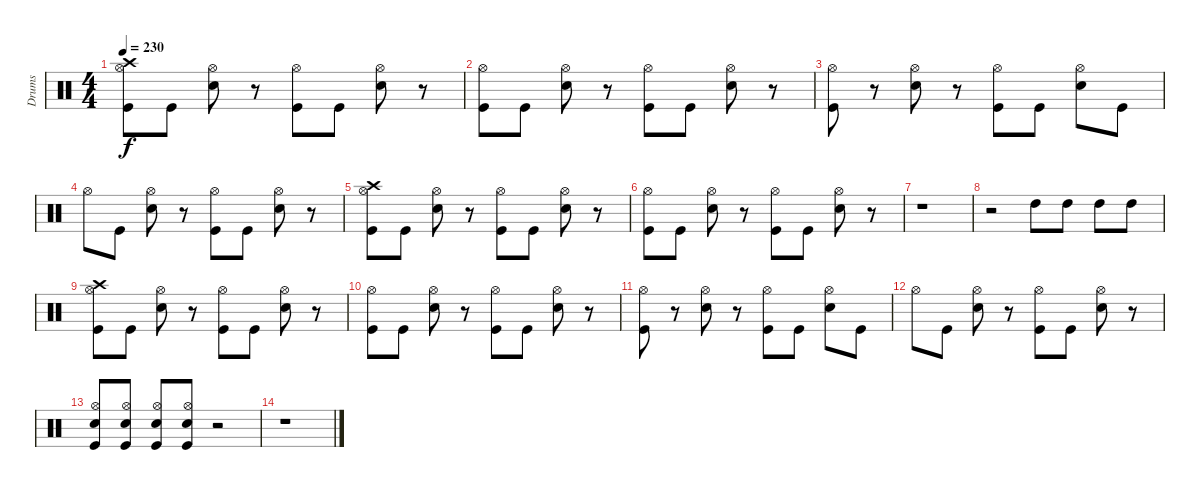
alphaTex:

\track ("Drums" "Drums") {instrument percussion}
\staff {score}
\articulation defaults
\ts (4 4)
\tempo 230
\clef neutral
\ks c
("Crash high (hit)" "Kick (hit)" "Hi-Hat (open)").8{dy f} "Kick (hit)".8 ("Electric Snare (hit)" "Hi-Hat (open)").8 r.8 ("Kick (hit)" "Hi-Hat (open)").8 "Kick (hit)".8 ("Electric Snare (hit)" "Hi-Hat (open)").8 r.8 |
("Kick (hit)" "Hi-Hat (open)").8 "Kick (hit)".8 ("Electric Snare (hit)" "Hi-Hat (open)").8 r.8 ("Kick (hit)" "Hi-Hat (open)").8 "Kick (hit)".8 ("Electric Snare (hit)" "Hi-Hat (open)").8 r.8 |
("Kick (hit)" "Hi-Hat (open)").8 r.8 ("Electric Snare (hit)" "Hi-Hat (open)").8 r.8 ("Kick (hit)" "Hi-Hat (open)").8 "Kick (hit)".8 ("Electric Snare (hit)" "Hi-Hat (open)").8 "Kick (hit)".8 |
"Hi-Hat (open)".8 "Kick (hit)".8 ("Electric Snare (hit)" "Hi-Hat (open)").8 r.8 ("Kick (hit)" "Hi-Hat (open)").8 "Kick (hit)".8 ("Electric Snare (hit)" "Hi-Hat (open)").8 r.8 |
("Crash high (hit)" "Kick (hit)" "Hi-Hat (open)").8 "Kick (hit)".8 ("Electric Snare (hit)" "Hi-Hat (open)").8 r.8 ("Kick (hit)" "Hi-Hat (open)").8 "Kick (hit)".8 ("Electric Snare (hit)" "Hi-Hat (open)").8 r.8 |
("Kick (hit)" "Hi-Hat (open)").8 "Kick (hit)".8 ("Electric Snare (hit)" "Hi-Hat (open)").8 r.8 ("Kick (hit)" "Hi-Hat (open)").8 "Kick (hit)".8 ("Electric Snare (hit)" "Hi-Hat (open)").8 r.8 |
r.1 |
r.2 "High Tom (hit)".8 "High Tom (hit)".8 "High Tom (hit)".8 "High Tom (hit)".8 |
("Crash high (hit)" "Kick (hit)" "Hi-Hat (open)").8 "Kick (hit)".8 ("Electric Snare (hit)" "Hi-Hat (open)").8 r.8 ("Kick (hit)" "Hi-Hat (open)").8 "Kick (hit)".8 ("Electric Snare (hit)" "Hi-Hat (open)").8 r.8 |
("Kick (hit)" "Hi-Hat (open)").8 "Kick (hit)".8 ("Electric Snare (hit)" "Hi-Hat (open)").8 r.8 ("Kick (hit)" "Hi-Hat (open)").8 "Kick (hit)".8 ("Electric Snare (hit)" "Hi-Hat (open)").8 r.8 |
("Kick (hit)" "Hi-Hat (open)").8 r.8 ("Electric Snare (hit)" "Hi-Hat (open)").8 r.8 ("Kick (hit)" "Hi-Hat (open)").8 "Kick (hit)".8 ("Electric Snare (hit)" "Hi-Hat (open)").8 "Kick (hit)".8 |
"Hi-Hat (open)".8 "Kick (hit)".8 ("Electric Snare (hit)" "Hi-Hat (open)").8 r.8 ("Kick (hit)" "Hi-Hat (open)").8 "Kick (hit)".8 ("Electric Snare (hit)" "Hi-Hat (open)").8 r.8 |
("Hi-Hat (open)" "Electric Snare (hit)" "Kick (hit)").8 ("Hi-Hat (open)" "Electric Snare (hit)" "Kick (hit)").8 ("Hi-Hat (open)" "Electric Snare (hit)" "Kick (hit)").8 ("Hi-Hat (open)" "Electric Snare (hit)" "Kick (hit)").8 r.2 |
r.1
